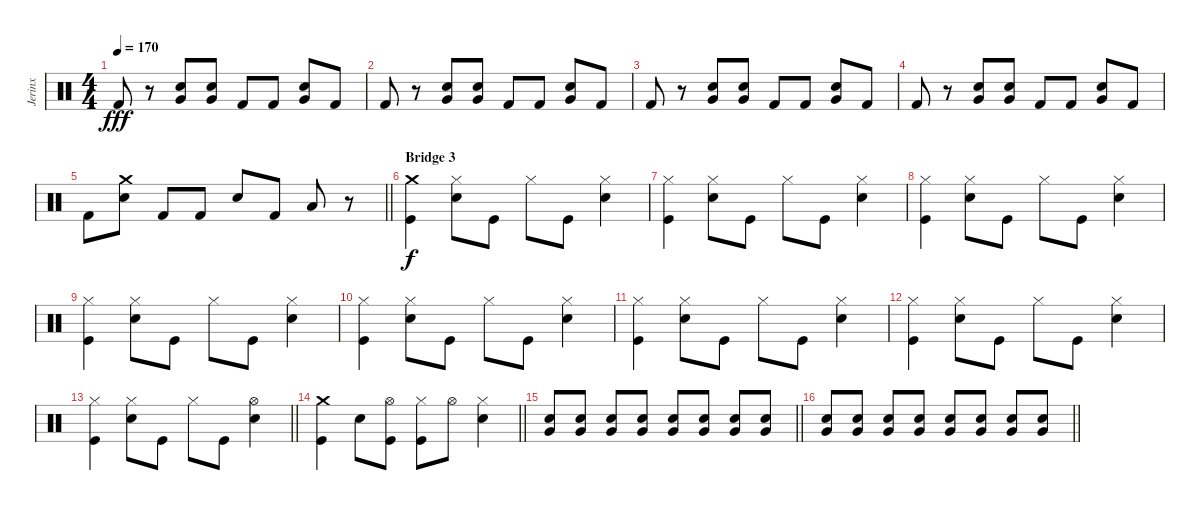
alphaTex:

\track ("Jerinx" "Jerinx") {instrument percussion}
\staff {score}
\articulation defaults
\ts (4 4)
\tempo 170
\clef neutral
\ks c "Kick (hit) 2".8{dy fff}
r.8 ("Snare (hit) 2" "Very Low Tom (hit)").8 ("Snare (hit) 2" "Very Low Tom (hit)").8 "Kick (hit) 2".8 "Kick (hit) 2".8 ("Snare (hit) 2" "Very Low Tom (hit)").8 "Kick (hit) 2".8 |
"Kick (hit) 2".8 r.8 ("Snare (hit) 2" "Very Low Tom (hit)").8 ("Snare (hit) 2" "Very Low Tom (hit)").8 "Kick (hit) 2".8 "Kick (hit) 2".8 ("Snare (hit) 2" "Very Low Tom (hit)").8 "Kick (hit) 2".8 |
"Kick (hit) 2".8 r.8 ("Snare (hit) 2" "Very Low Tom (hit)").8 ("Snare (hit) 2" "Very Low Tom (hit)").8 "Kick (hit) 2".8 "Kick (hit) 2".8 ("Snare (hit) 2" "Very Low Tom (hit)").8 "Kick (hit) 2".8 |
"Kick (hit) 2".8 r.8 ("Snare (hit) 2" "Very Low Tom (hit)").8 ("Snare (hit) 2" "Very Low Tom (hit)").8 "Kick (hit) 2".8 "Kick (hit) 2".8 ("Snare (hit) 2" "Very Low Tom (hit)").8 "Kick (hit) 2".8 |
\barLineRight lightlight "Kick (hit) 2".8
("Snare (hit) 2" "Crash medium (hit)").8 "Kick (hit) 2".8 "Kick (hit) 2".8 "Snare (hit) 2".8 "Kick (hit) 2".8 "Low Tom (hit)".8 r.8 |
\section ("" "Bridge 3")
("Kick (hit)" "Crash medium (hit)").4{dy f} ("Snare (hit) 2" "Hi-Hat (closed)").8 "Kick (hit)".8 "Hi-Hat (closed)".8 "Kick (hit)".8 ("Snare (hit) 2" "Hi-Hat (closed)").4 |
("Kick (hit)" "Hi-Hat (closed)").4 ("Snare (hit) 2" "Hi-Hat (closed)").8 "Kick (hit)".8 "Hi-Hat (closed)".8 "Kick (hit)".8 ("Snare (hit) 2" "Hi-Hat (closed)").4 |
("Kick (hit)" "Hi-Hat (closed)").4 ("Snare (hit) 2" "Hi-Hat (closed)").8 "Kick (hit)".8 "Hi-Hat (closed)".8 "Kick (hit)".8 ("Snare (hit) 2" "Hi-Hat (closed)").4 |
("Kick (hit)" "Hi-Hat (closed)").4 ("Snare (hit) 2" "Hi-Hat (closed)").8 "Kick (hit)".8 "Hi-Hat (closed)".8 "Kick (hit)".8 ("Snare (hit) 2" "Hi-Hat (closed)").4 |
("Kick (hit)" "Hi-Hat (closed)").4 ("Snare (hit) 2" "Hi-Hat (closed)").8 "Kick (hit)".8 "Hi-Hat (closed)".8 "Kick (hit)".8 ("Snare (hit) 2" "Hi-Hat (closed)").4 |
("Kick (hit)" "Hi-Hat (closed)").4 ("Snare (hit) 2" "Hi-Hat (closed)").8 "Kick (hit)".8 "Hi-Hat (closed)".8 "Kick (hit)".8 ("Snare (hit) 2" "Hi-Hat (closed)").4 |
("Kick (hit)" "Hi-Hat (closed)").4 ("Snare (hit) 2" "Hi-Hat (closed)").8 "Kick (hit)".8 "Hi-Hat (closed)".8 "Kick (hit)".8 ("Snare (hit) 2" "Hi-Hat (closed)").4 |
\barLineRight lightlight
("Kick (hit)" "Hi-Hat (closed)").4 ("Snare (hit) 2" "Hi-Hat (closed)").8 "Kick (hit)".8 "Hi-Hat (closed)".8 "Kick (hit)".8 ("Snare (hit) 2" "Hi-Hat (open)").4 |
\barLineRight lightlight
("Kick (hit)" "Crash medium (hit)").4 "Snare (hit) 2".8 ("Kick (hit)" "Hi-Hat (open)").8 ("Kick (hit)" "Hi-Hat (closed)").8 "Hi-Hat (open)".8 ("Snare (hit) 2" "Hi-Hat (closed)").4 |
\barLineRight lightlight
("Snare (hit) 2" "Very Low Tom (hit)").8 ("Snare (hit) 2" "Very Low Tom (hit)").8 ("Snare (hit) 2" "Very Low Tom (hit)").8 ("Snare (hit) 2" "Very Low Tom (hit)").8 ("Snare (hit) 2" "Very Low Tom (hit)").8 ("Snare (hit) 2" "Very Low Tom (hit)").8 ("Snare (hit) 2" "Very Low Tom (hit)").8 ("Snare (hit) 2" "Very Low Tom (hit)").8 |
\barLineRight lightlight
("Snare (hit) 2" "Very Low Tom (hit)").8 ("Snare (hit) 2" "Very Low Tom (hit)").8 ("Snare (hit) 2" "Very Low Tom (hit)").8 ("Snare (hit) 2" "Very Low Tom (hit)").8 ("Snare (hit) 2" "Very Low Tom (hit)").8 ("Snare (hit) 2" "Very Low Tom (hit)").8 ("Snare (hit) 2" "Very Low Tom (hit)").8 ("Snare (hit) 2" "Very Low Tom (hit)").8
